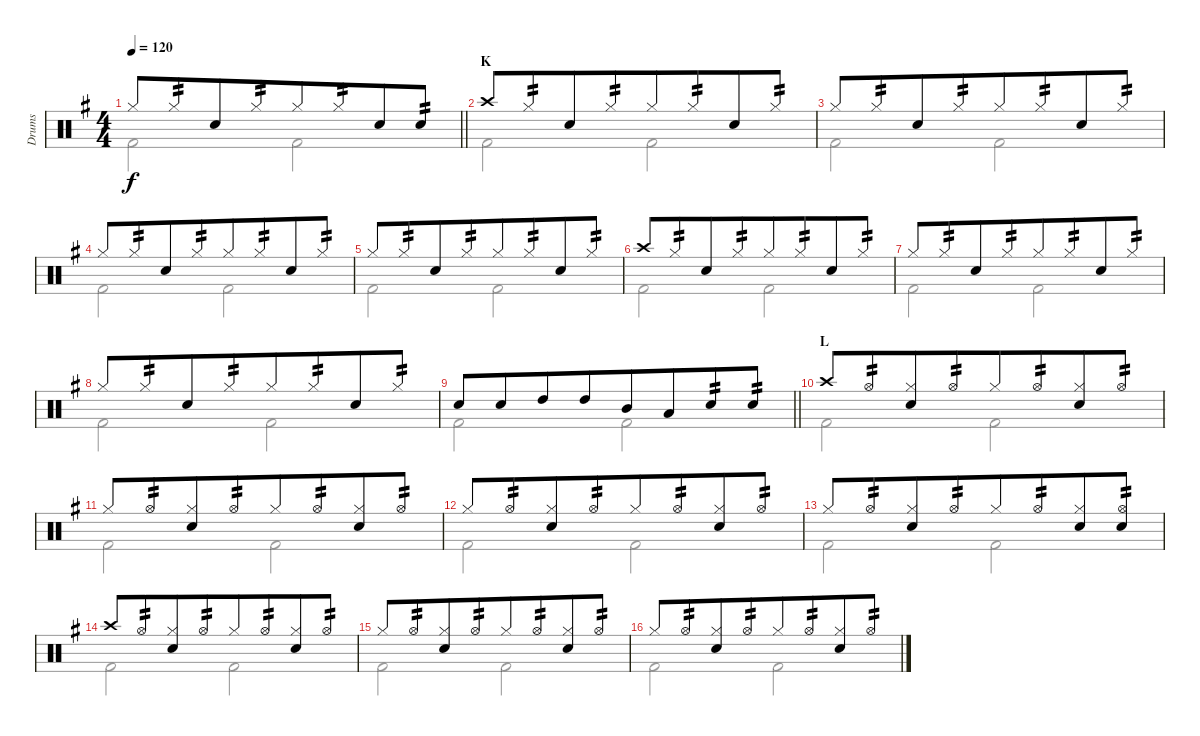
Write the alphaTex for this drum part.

\track ("Drums" "Drums") {instrument percussion}
\staff {score}
\articulation defaults
\voice
\ts (4 4)
\tempo 120
\clef neutral
\barLineRight lightlight
\ks g "Hi-Hat (closed)".8{dy f} "Hi-Hat (closed)".8{tp 2 beam merge} "Snare (hit) 2".8 "Hi-Hat (closed)".8{tp 2 beam merge} "Hi-Hat (closed)".8 "Hi-Hat (closed)".8{tp 2 beam merge} "Snare (hit) 2".8 "Electric Snare (hit)".8{tp 2}
|
\section ("" "K")
"Crash high (hit)".8 "Hi-Hat (closed)".8{tp 2 beam merge} "Snare (hit) 2".8 "Hi-Hat (closed)".8{tp 2 beam merge} "Hi-Hat (closed)".8 "Hi-Hat (closed)".8{tp 2 beam merge} "Snare (hit) 2".8 "Hi-Hat (closed)".8{tp 2} |
"Hi-Hat (closed)".8 "Hi-Hat (closed)".8{tp 2 beam merge} "Snare (hit) 2".8 "Hi-Hat (closed)".8{tp 2 beam merge} "Hi-Hat (closed)".8 "Hi-Hat (closed)".8{tp 2 beam merge} "Snare (hit) 2".8 "Hi-Hat (closed)".8{tp 2} |
"Hi-Hat (closed)".8 "Hi-Hat (closed)".8{tp 2 beam merge} "Snare (hit) 2".8 "Hi-Hat (closed)".8{tp 2 beam merge} "Hi-Hat (closed)".8 "Hi-Hat (closed)".8{tp 2 beam merge} "Snare (hit) 2".8 "Hi-Hat (closed)".8{tp 2} |
"Hi-Hat (closed)".8 "Hi-Hat (closed)".8{tp 2 beam merge} "Snare (hit) 2".8 "Hi-Hat (closed)".8{tp 2 beam merge} "Hi-Hat (closed)".8 "Hi-Hat (closed)".8{tp 2 beam merge} "Snare (hit) 2".8 "Hi-Hat (closed)".8{tp 2} |
"Crash high (hit)".8 "Hi-Hat (closed)".8{tp 2 beam merge} "Snare (hit) 2".8 "Hi-Hat (closed)".8{tp 2 beam merge} "Hi-Hat (closed)".8 "Hi-Hat (closed)".8{tp 2 beam merge} "Snare (hit) 2".8 "Hi-Hat (closed)".8{tp 2} |
"Hi-Hat (closed)".8 "Hi-Hat (closed)".8{tp 2 beam merge} "Snare (hit) 2".8 "Hi-Hat (closed)".8{tp 2 beam merge} "Hi-Hat (closed)".8 "Hi-Hat (closed)".8{tp 2 beam merge} "Snare (hit) 2".8 "Hi-Hat (closed)".8{tp 2} |
"Hi-Hat (closed)".8 "Hi-Hat (closed)".8{tp 2 beam merge} "Snare (hit) 2".8 "Hi-Hat (closed)".8{tp 2 beam merge} "Hi-Hat (closed)".8 "Hi-Hat (closed)".8{tp 2 beam merge} "Snare (hit) 2".8 "Hi-Hat (closed)".8{tp 2} |
\barLineRight lightlight "Electric Snare (hit)".8 "Electric Snare (hit)".8{beam merge} "High Tom (hit)".8 "High Tom (hit)".8{beam merge} "Mid Tom (hit)".8 "Low Tom (hit)".8{beam merge} "Snare (hit) 2".8{tp 2} "Electric Snare (hit)".8{tp 2}
|
\section ("" "L")
"Crash high (hit)".8 "Hi-Hat (open)".8{tp 2 beam merge} ("Hi-Hat (closed)" "Electric Snare (hit)").8 "Hi-Hat (open)".8{tp 2 beam merge} "Hi-Hat (closed)".8 "Hi-Hat (open)".8{tp 2 beam merge} ("Hi-Hat (closed)" "Electric Snare (hit)").8 "Hi-Hat (open)".8{tp 2} |
"Hi-Hat (closed)".8 "Hi-Hat (open)".8{tp 2 beam merge} ("Hi-Hat (closed)" "Snare (hit) 2").8 "Hi-Hat (open)".8{tp 2 beam merge} "Hi-Hat (closed)".8 "Hi-Hat (open)".8{tp 2 beam merge} ("Hi-Hat (closed)" "Snare (hit) 2").8 "Hi-Hat (open)".8{tp 2} |
"Hi-Hat (closed)".8 "Hi-Hat (open)".8{tp 2 beam merge} ("Hi-Hat (closed)" "Snare (hit) 2").8 "Hi-Hat (open)".8{tp 2 beam merge} "Hi-Hat (closed)".8 "Hi-Hat (open)".8{tp 2 beam merge} ("Hi-Hat (closed)" "Snare (hit) 2").8 "Hi-Hat (open)".8{tp 2} |
"Hi-Hat (closed)".8 "Hi-Hat (open)".8{tp 2 beam merge} ("Hi-Hat (closed)" "Snare (hit) 2").8 "Hi-Hat (open)".8{tp 2 beam merge} "Hi-Hat (closed)".8 "Hi-Hat (open)".8{tp 2 beam merge} ("Hi-Hat (closed)" "Snare (hit) 2").8 ("Hi-Hat (open)" "Electric Snare (hit)").8{tp 2} |
"Crash high (hit)".8 "Hi-Hat (open)".8{tp 2 beam merge} ("Hi-Hat (closed)" "Electric Snare (hit)").8 "Hi-Hat (open)".8{tp 2 beam merge} "Hi-Hat (closed)".8 "Hi-Hat (open)".8{tp 2 beam merge} ("Hi-Hat (closed)" "Electric Snare (hit)").8 "Hi-Hat (open)".8{tp 2} |
"Hi-Hat (closed)".8 "Hi-Hat (open)".8{tp 2 beam merge} ("Hi-Hat (closed)" "Snare (hit) 2").8 "Hi-Hat (open)".8{tp 2 beam merge} "Hi-Hat (closed)".8 "Hi-Hat (open)".8{tp 2 beam merge} ("Hi-Hat (closed)" "Snare (hit) 2").8 "Hi-Hat (open)".8{tp 2} |
"Hi-Hat (closed)".8 "Hi-Hat (open)".8{tp 2 beam merge} ("Hi-Hat (closed)" "Snare (hit) 2").8 "Hi-Hat (open)".8{tp 2 beam merge} "Hi-Hat (closed)".8 "Hi-Hat (open)".8{tp 2 beam merge} ("Hi-Hat (closed)" "Snare (hit) 2").8 "Hi-Hat (open)".8{tp 2}
\voice
\clef neutral
\ottava regular
\simile none
\barLineRight lightlight
\ks g "Kick (hit) 2".2{dy f} "Kick (hit) 2".2
|
"Kick (hit) 2".2 "Kick (hit) 2".2 |
"Kick (hit) 2".2 "Kick (hit) 2".2 |
"Kick (hit) 2".2 "Kick (hit) 2".2 |
"Kick (hit) 2".2 "Kick (hit) 2".2 |
"Kick (hit) 2".2 "Kick (hit) 2".2 |
"Kick (hit) 2".2 "Kick (hit) 2".2 |
"Kick (hit) 2".2 "Kick (hit) 2".2 |
\barLineRight lightlight "Kick (hit) 2".2 "Kick (hit) 2".2
|
"Kick (hit) 2".2 "Kick (hit) 2".2 |
"Kick (hit) 2".2 "Kick (hit) 2".2 |
"Kick (hit) 2".2 "Kick (hit) 2".2 |
"Kick (hit) 2".2 "Kick (hit) 2".2 |
"Kick (hit) 2".2 "Kick (hit) 2".2 |
"Kick (hit) 2".2 "Kick (hit) 2".2 |
"Kick (hit) 2".2 "Kick (hit) 2".2
